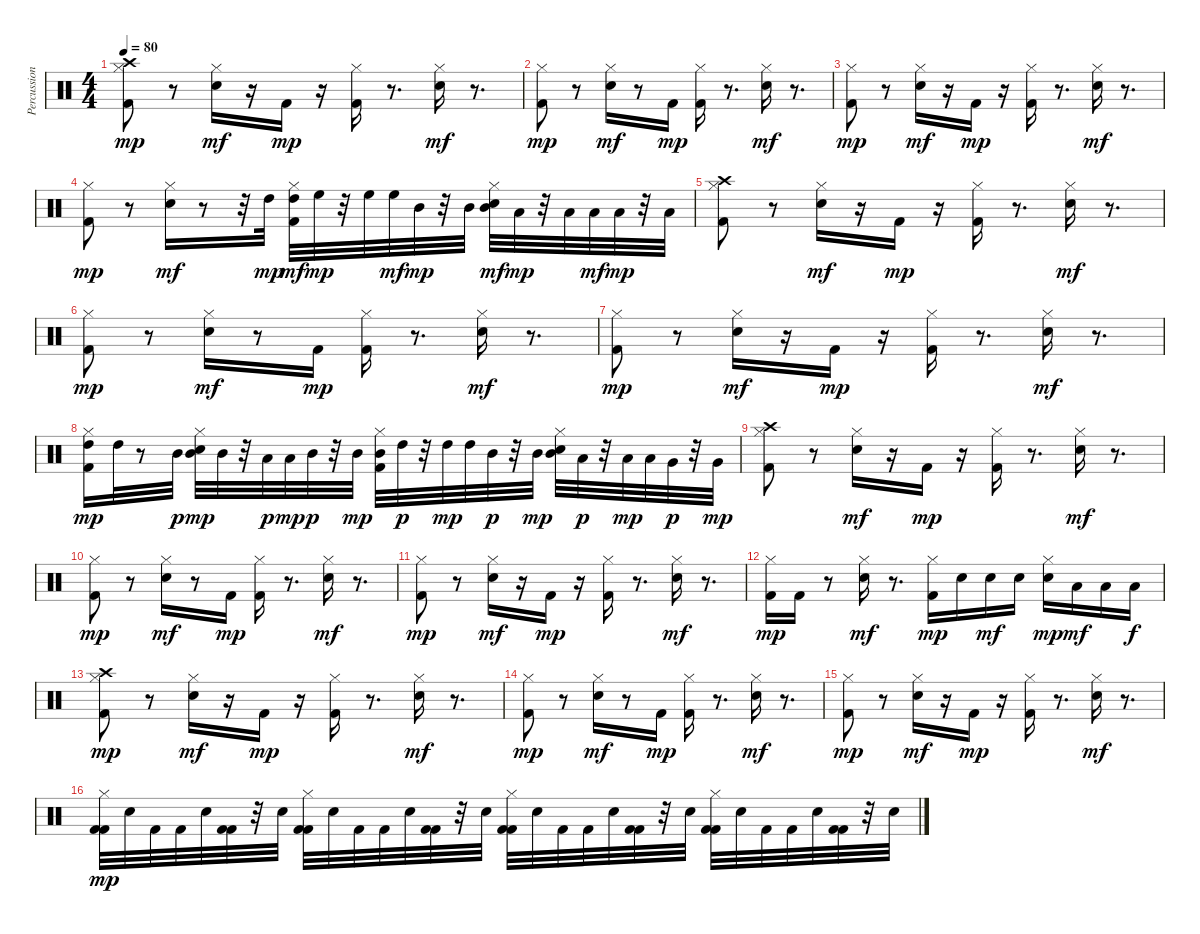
\track ("Percussions" "Percussion") {instrument percussion}
\staff {score}
\articulation defaults
\ts (4 4)
\tempo 80
\clef neutral
\ks c
("Hi-Hat (closed)" "Kick (hit) 2" "Crash high (hit)").8{dy mp} r.8 ("Hi-Hat (closed)" "Snare (hit) 2").16{dy mf} r.16 "Kick (hit) 2".16{dy mp} r.16 ("Hi-Hat (closed)" "Kick (hit) 2").16 r.8{d} ("Hi-Hat (closed)" "Snare (hit) 2").16{dy mf} r.8{d} |
("Hi-Hat (closed)" "Kick (hit) 2").8{dy mp} r.8 ("Hi-Hat (closed)" "Snare (hit) 2").16{dy mf} r.8 "Kick (hit) 2".16{dy mp} ("Hi-Hat (closed)" "Kick (hit) 2").16 r.8{d} ("Hi-Hat (closed)" "Snare (hit) 2").16{dy mf} r.8{d} |
("Hi-Hat (closed)" "Kick (hit) 2").8{dy mp} r.8 ("Hi-Hat (closed)" "Snare (hit) 2").16{dy mf} r.16 "Kick (hit) 2".16{dy mp} r.16 ("Hi-Hat (closed)" "Kick (hit) 2").16 r.8{d} ("Hi-Hat (closed)" "Snare (hit) 2").16{dy mf} r.8{d} |
("Hi-Hat (closed)" "Kick (hit) 2").8{dy mp} r.8 ("Hi-Hat (closed)" "Snare (hit) 2").16{dy mf} r.8 r.32 "High Tom (hit)".32{dy mp} ("Hi-Hat (closed)" "Kick (hit) 2" "High Tom (hit)").32{dy mf} "High Floor Tom (hit)".32{dy mp} r.32 "High Floor Tom (hit)".32 "High Floor Tom (hit)".32{dy mf} "Mid Tom (hit)".32{dy mp} r.32 "Mid Tom (hit)".32 ("Hi-Hat (closed)" "Snare (hit) 2" "Mid Tom (hit)").32{dy mf} "Low Tom (hit)".32{dy mp} r.32 "Low Tom (hit)".32 "Low Tom (hit)".32{dy mf} "Low Floor Tom (hit)".32{dy mp} r.32 "Low Floor Tom (hit)".32 |
("Hi-Hat (closed)" "Kick (hit) 2" "Crash high (hit)").8 r.8 ("Hi-Hat (closed)" "Snare (hit) 2").16{dy mf} r.16 "Kick (hit) 2".16{dy mp} r.16 ("Hi-Hat (closed)" "Kick (hit) 2").16 r.8{d} ("Hi-Hat (closed)" "Snare (hit) 2").16{dy mf} r.8{d} |
("Hi-Hat (closed)" "Kick (hit) 2").8{dy mp} r.8 ("Hi-Hat (closed)" "Snare (hit) 2").16{dy mf} r.8 "Kick (hit) 2".16{dy mp} ("Hi-Hat (closed)" "Kick (hit) 2").16 r.8{d} ("Hi-Hat (closed)" "Snare (hit) 2").16{dy mf} r.8{d} |
("Hi-Hat (closed)" "Kick (hit) 2").8{dy mp} r.8 ("Hi-Hat (closed)" "Snare (hit) 2").16{dy mf} r.16 "Kick (hit) 2".16{dy mp} r.16 ("Hi-Hat (closed)" "Kick (hit) 2").16 r.8{d} ("Hi-Hat (closed)" "Snare (hit) 2").16{dy mf} r.8{d} |
("Hi-Hat (closed)" "Kick (hit) 2" "High Tom (hit)").16{dy mp} "High Tom (hit)".32 r.8 "Mid Tom (hit)".32{dy p} ("Hi-Hat (closed)" "Snare (hit) 2" "Mid Tom (hit)").32{dy mp} "Mid Tom (hit)".32 r.32 "Low Tom (hit)".32{dy p} "Low Tom (hit)".32{dy mp} "Mid Tom (hit)".32{dy p} r.32 "Mid Tom (hit)".32{dy mp} ("Hi-Hat (closed)" "Kick (hit) 2" "Mid Tom (hit)").32 "High Tom (hit)".32{dy p} r.32 "High Tom (hit)".32{dy mp} "High Tom (hit)".32 "Mid Tom (hit)".32{dy p} r.32 "Mid Tom (hit)".32{dy mp} ("Hi-Hat (closed)" "Snare (hit) 2" "Mid Tom (hit)").32 "Low Tom (hit)".32{dy p} r.32 "Low Tom (hit)".32{dy mp} "Low Tom (hit)".32 "Very Low Tom (hit)".32{dy p} r.32 "Very Low Tom (hit)".32{dy mp} |
("Hi-Hat (closed)" "Kick (hit) 2" "Crash high (hit)").8 r.8 ("Hi-Hat (closed)" "Snare (hit) 2").16{dy mf} r.16 "Kick (hit) 2".16{dy mp} r.16 ("Hi-Hat (closed)" "Kick (hit) 2").16 r.8{d} ("Hi-Hat (closed)" "Snare (hit) 2").16{dy mf} r.8{d} |
("Hi-Hat (closed)" "Kick (hit) 2").8{dy mp} r.8 ("Hi-Hat (closed)" "Snare (hit) 2").16{dy mf} r.8 "Kick (hit) 2".16{dy mp} ("Hi-Hat (closed)" "Kick (hit) 2").16 r.8{d} ("Hi-Hat (closed)" "Snare (hit) 2").16{dy mf} r.8{d} |
("Hi-Hat (closed)" "Kick (hit) 2").8{dy mp} r.8 ("Hi-Hat (closed)" "Snare (hit) 2").16{dy mf} r.16 "Kick (hit) 2".16{dy mp} r.16 ("Hi-Hat (closed)" "Kick (hit) 2").16 r.8{d} ("Hi-Hat (closed)" "Snare (hit) 2").16{dy mf} r.8{d} |
("Hi-Hat (closed)" "Kick (hit) 2").16{dy mp} "Kick (hit) 2".16 r.8 ("Hi-Hat (closed)" "Snare (hit) 2").16{dy mf} r.8{d} ("Hi-Hat (closed)" "Kick (hit) 2").16{dy mp} "Snare (hit) 2".16 "Snare (hit) 2".16{dy mf} "Snare (hit) 2".16 ("Hi-Hat (closed)" "Snare (hit) 2").16{dy mp} "Low Floor Tom (hit)".16{dy mf} "Low Floor Tom (hit)".16 "Low Floor Tom (hit)".16{dy f} |
("Hi-Hat (closed)" "Kick (hit) 2" "Crash high (hit)").8{dy mp} r.8 ("Hi-Hat (closed)" "Snare (hit) 2").16{dy mf} r.16 "Kick (hit) 2".16{dy mp} r.16 ("Hi-Hat (closed)" "Kick (hit) 2").16 r.8{d} ("Hi-Hat (closed)" "Snare (hit) 2").16{dy mf} r.8{d} |
("Hi-Hat (closed)" "Kick (hit) 2").8{dy mp} r.8 ("Hi-Hat (closed)" "Snare (hit) 2").16{dy mf} r.8 "Kick (hit) 2".16{dy mp} ("Hi-Hat (closed)" "Kick (hit) 2").16 r.8{d} ("Hi-Hat (closed)" "Snare (hit) 2").16{dy mf} r.8{d} |
("Hi-Hat (closed)" "Kick (hit) 2").8{dy mp} r.8 ("Hi-Hat (closed)" "Snare (hit) 2").16{dy mf} r.16 "Kick (hit) 2".16{dy mp} r.16 ("Hi-Hat (closed)" "Kick (hit) 2").16 r.8{d} ("Hi-Hat (closed)" "Snare (hit) 2").16{dy mf} r.8{d} |
("Kick (hit) 2" "Hi-Hat (closed)" "Kick (hit) 2").32{dy mp} "Snare (hit) 2".32 "Kick (hit) 2".32 "Kick (hit) 2".32 "Snare (hit) 2".32 ("Kick (hit) 2" "Kick (hit) 2").32 r.32 "Snare (hit) 2".32 ("Kick (hit) 2" "Hi-Hat (closed)" "Kick (hit) 2").32 "Snare (hit) 2".32 "Kick (hit) 2".32 "Kick (hit) 2".32 "Snare (hit) 2".32 ("Kick (hit) 2" "Kick (hit) 2").32 r.32 "Snare (hit) 2".32 ("Kick (hit) 2" "Hi-Hat (closed)" "Kick (hit) 2").32 "Snare (hit) 2".32 "Kick (hit) 2".32 "Kick (hit) 2".32 "Snare (hit) 2".32 ("Kick (hit) 2" "Kick (hit) 2").32 r.32 "Snare (hit) 2".32 ("Kick (hit) 2" "Hi-Hat (closed)" "Kick (hit) 2").32 "Snare (hit) 2".32 "Kick (hit) 2".32 "Kick (hit) 2".32 "Snare (hit) 2".32 ("Kick (hit) 2" "Kick (hit) 2").32 r.32 "Snare (hit) 2".32
